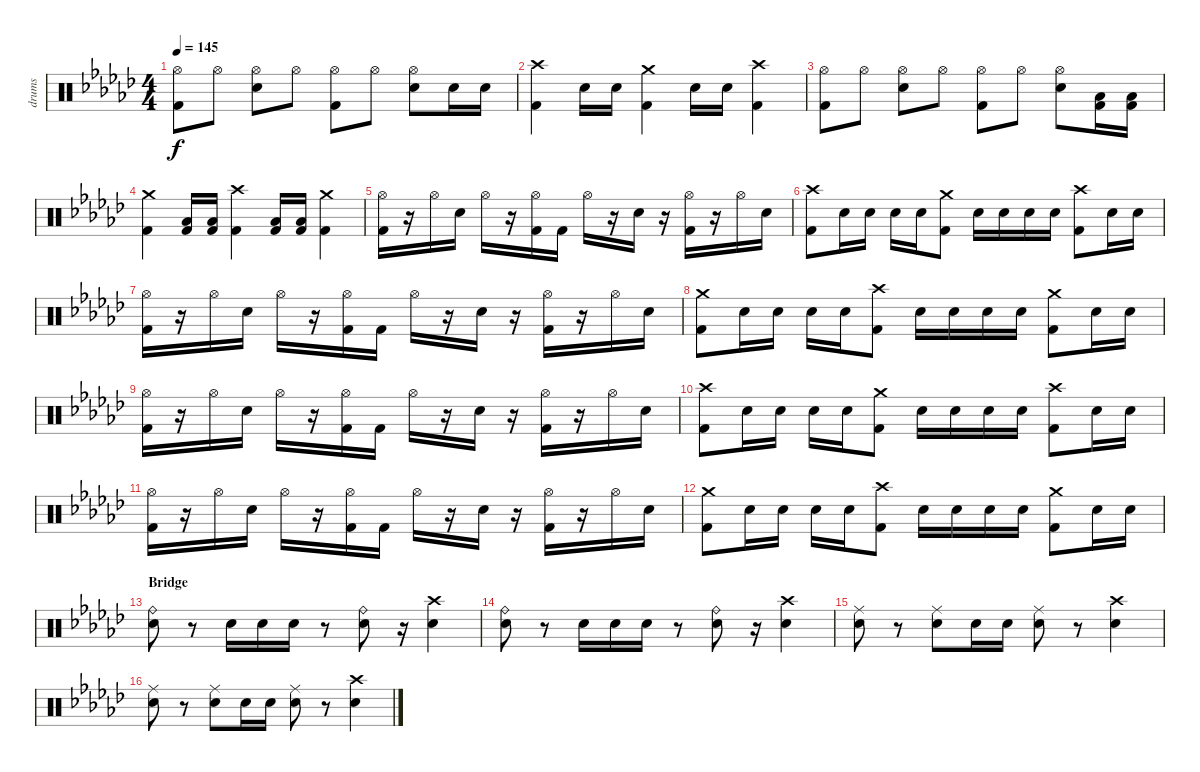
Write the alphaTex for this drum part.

\track ("drums" "drums") {instrument percussion}
\staff {score}
\articulation defaults
\ts (4 4)
\tempo 145
\clef neutral
\ks gb
("Hi-Hat (open)" "Kick (hit) 2").8{dy f} "Hi-Hat (open)".8 ("Hi-Hat (open)" "Electric Snare (hit)").8 "Hi-Hat (open)".8 ("Hi-Hat (open)" "Kick (hit) 2").8 "Hi-Hat (open)".8 ("Hi-Hat (open)" "Electric Snare (hit)").8 "Snare (hit) 2".16 "Snare (hit) 2".16 |
("Crash high (hit)" "Kick (hit) 2").4 "Snare (hit) 2".16 "Snare (hit) 2".16 ("Crash medium (hit)" "Kick (hit) 2").4 "Snare (hit) 2".16 "Snare (hit) 2".16 ("Crash high (hit)" "Kick (hit) 2").4 |
("Hi-Hat (open)" "Kick (hit) 2").8 "Hi-Hat (open)".8 ("Hi-Hat (open)" "Electric Snare (hit)").8 "Hi-Hat (open)".8 ("Hi-Hat (open)" "Kick (hit) 2").8 "Hi-Hat (open)".8 ("Hi-Hat (open)" "Electric Snare (hit)").8 ("Low Tom (hit)" "Kick (hit) 2").16 ("Low Tom (hit)" "Kick (hit) 2").16 |
("Crash medium (hit)" "Kick (hit) 2").4 ("Low Tom (hit)" "Kick (hit) 2").16 ("Low Tom (hit)" "Kick (hit) 2").16 ("Crash high (hit)" "Kick (hit) 2").4 ("Low Tom (hit)" "Kick (hit) 2").16 ("Low Tom (hit)" "Kick (hit) 2").16 ("Crash medium (hit)" "Kick (hit) 2").4 |
("Hi-Hat (open)" "Kick (hit) 2").16 r.16 "Hi-Hat (open)".16 "Electric Snare (hit)".16 "Hi-Hat (open)".16 r.16 ("Hi-Hat (open)" "Kick (hit) 2").16 "Kick (hit) 2".16 "Hi-Hat (open)".16 r.16 "Electric Snare (hit)".16 r.16 ("Hi-Hat (open)" "Kick (hit) 2").16 r.16 "Hi-Hat (open)".16 "Electric Snare (hit)".16 |
("Crash high (hit)" "Kick (hit) 2").8 "Snare (hit) 2".16 "Snare (hit) 2".16 "Snare (hit) 2".16 "Snare (hit) 2".16 ("Crash medium (hit)" "Kick (hit) 2").8 "Snare (hit) 2".16 "Snare (hit) 2".16 "Snare (hit) 2".16 "Snare (hit) 2".16 ("Crash high (hit)" "Kick (hit) 2").8 "Snare (hit) 2".16 "Snare (hit) 2".16 |
("Hi-Hat (open)" "Kick (hit) 2").16 r.16 "Hi-Hat (open)".16 "Electric Snare (hit)".16 "Hi-Hat (open)".16 r.16 ("Hi-Hat (open)" "Kick (hit) 2").16 "Kick (hit) 2".16 "Hi-Hat (open)".16 r.16 "Electric Snare (hit)".16 r.16 ("Hi-Hat (open)" "Kick (hit) 2").16 r.16 "Hi-Hat (open)".16 "Electric Snare (hit)".16 |
("Crash medium (hit)" "Kick (hit) 2").8 "Snare (hit) 2".16 "Snare (hit) 2".16 "Snare (hit) 2".16 "Snare (hit) 2".16 ("Crash high (hit)" "Kick (hit) 2").8 "Snare (hit) 2".16 "Snare (hit) 2".16 "Snare (hit) 2".16 "Snare (hit) 2".16 ("Crash medium (hit)" "Kick (hit) 2").8 "Snare (hit) 2".16 "Snare (hit) 2".16 |
("Hi-Hat (open)" "Kick (hit) 2").16 r.16 "Hi-Hat (open)".16 "Electric Snare (hit)".16 "Hi-Hat (open)".16 r.16 ("Hi-Hat (open)" "Kick (hit) 2").16 "Kick (hit) 2".16 "Hi-Hat (open)".16 r.16 "Electric Snare (hit)".16 r.16 ("Hi-Hat (open)" "Kick (hit) 2").16 r.16 "Hi-Hat (open)".16 "Electric Snare (hit)".16 |
("Crash high (hit)" "Kick (hit) 2").8 "Snare (hit) 2".16 "Snare (hit) 2".16 "Snare (hit) 2".16 "Snare (hit) 2".16 ("Crash medium (hit)" "Kick (hit) 2").8 "Snare (hit) 2".16 "Snare (hit) 2".16 "Snare (hit) 2".16 "Snare (hit) 2".16 ("Crash high (hit)" "Kick (hit) 2").8 "Snare (hit) 2".16 "Snare (hit) 2".16 |
("Hi-Hat (open)" "Kick (hit) 2").16 r.16 "Hi-Hat (open)".16 "Electric Snare (hit)".16 "Hi-Hat (open)".16 r.16 ("Hi-Hat (open)" "Kick (hit) 2").16 "Kick (hit) 2".16 "Hi-Hat (open)".16 r.16 "Electric Snare (hit)".16 r.16 ("Hi-Hat (open)" "Kick (hit) 2").16 r.16 "Hi-Hat (open)".16 "Electric Snare (hit)".16 |
("Crash medium (hit)" "Kick (hit) 2").8 "Snare (hit) 2".16 "Snare (hit) 2".16 "Snare (hit) 2".16 "Snare (hit) 2".16 ("Crash high (hit)" "Kick (hit) 2").8 "Snare (hit) 2".16 "Snare (hit) 2".16 "Snare (hit) 2".16 "Snare (hit) 2".16 ("Crash medium (hit)" "Kick (hit) 2").8 "Snare (hit) 2".16 "Snare (hit) 2".16 |
\section ("" "Bridge")
("Ride (bell)" "Snare (hit) 2").8 r.8 "Snare (hit) 2".16 "Snare (hit) 2".16 "Snare (hit) 2".16 r.8 ("Ride (bell)" "Snare (hit) 2").8 r.16 ("Crash high (hit)" "Snare (hit) 2").4 |
("Ride (bell)" "Snare (hit) 2").8 r.8 "Snare (hit) 2".16 "Snare (hit) 2".16 "Snare (hit) 2".16 r.8 ("Ride (bell)" "Snare (hit) 2").8 r.16 ("Crash high (hit)" "Snare (hit) 2").4 |
("Ride (middle)" "Snare (hit) 2").8 r.8 ("Ride (middle)" "Snare (hit) 2").8 "Snare (hit) 2".16 "Snare (hit) 2".16 ("Ride (middle)" "Snare (hit) 2").8 r.8 ("Crash high (hit)" "Snare (hit) 2").4 |
("Ride (middle)" "Snare (hit) 2").8 r.8 ("Ride (middle)" "Snare (hit) 2").8 "Snare (hit) 2".16 "Snare (hit) 2".16 ("Ride (middle)" "Snare (hit) 2").8 r.8 ("Crash high (hit)" "Snare (hit) 2").4
